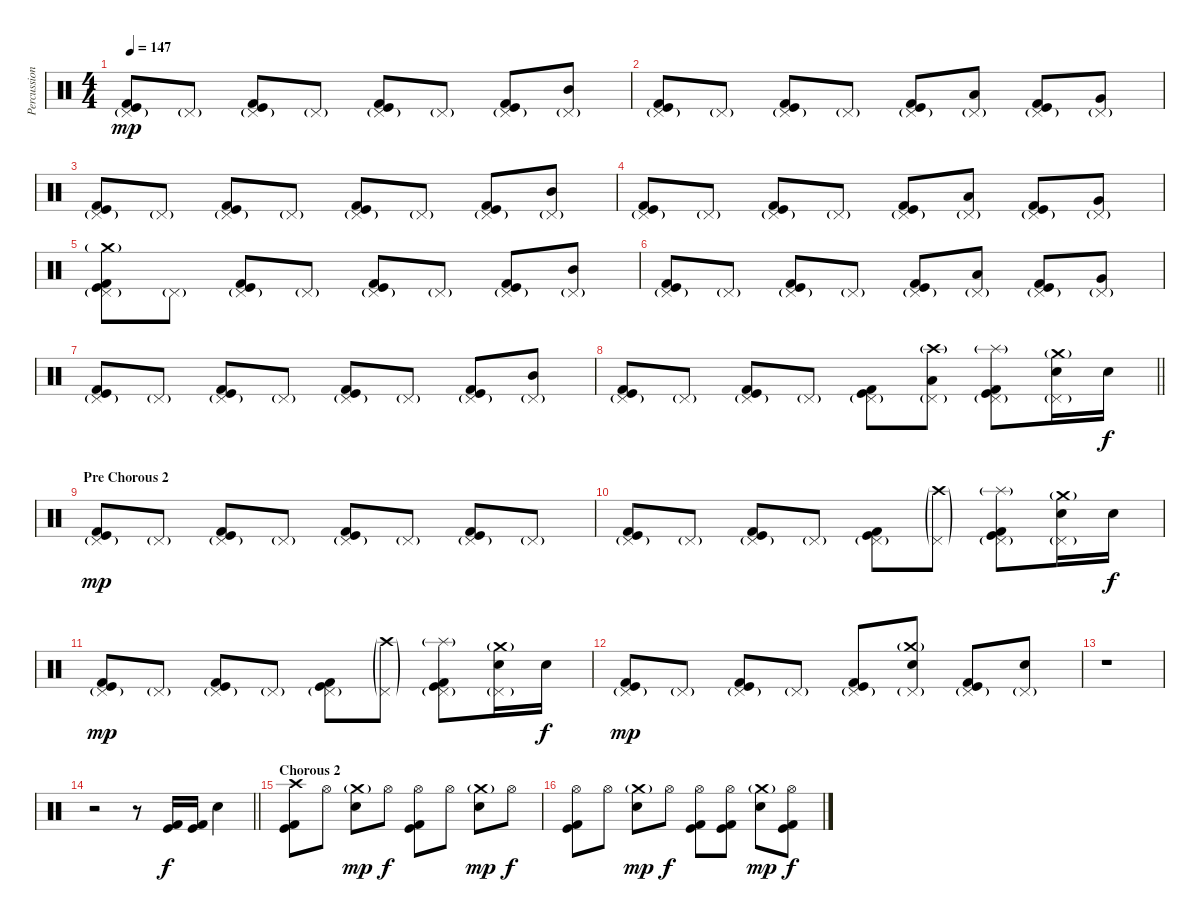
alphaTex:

\track ("Percussion" "Percussion") {instrument percussion}
\staff {score}
\articulation defaults
\ts (4 4)
\section ("" "")
\tempo 147
\clef neutral
\ks c
("Pedal Hi-Hat (hit)"{g} "Kick (hit)" "Kick (hit) 2").8{dy mp} "Pedal Hi-Hat (hit)"{g}.8 ("Pedal Hi-Hat (hit)"{g} "Kick (hit)" "Kick (hit) 2").8 "Pedal Hi-Hat (hit)"{g}.8 ("Pedal Hi-Hat (hit)"{g} "Kick (hit)" "Kick (hit) 2").8 "Pedal Hi-Hat (hit)"{g}.8 ("Pedal Hi-Hat (hit)"{g} "Kick (hit)" "Kick (hit) 2").8 ("Pedal Hi-Hat (hit)"{g} "Mid Tom (hit)").8 |
("Pedal Hi-Hat (hit)"{g} "Kick (hit)" "Kick (hit) 2").8 "Pedal Hi-Hat (hit)"{g}.8 ("Pedal Hi-Hat (hit)"{g} "Kick (hit)" "Kick (hit) 2").8 "Pedal Hi-Hat (hit)"{g}.8 ("Pedal Hi-Hat (hit)"{g} "Kick (hit)" "Kick (hit) 2").8 ("Pedal Hi-Hat (hit)"{g} "Low Tom (hit)").8 ("Pedal Hi-Hat (hit)"{g} "Kick (hit)" "Kick (hit) 2").8 ("Pedal Hi-Hat (hit)"{g} "Very Low Tom (hit)").8 |
("Pedal Hi-Hat (hit)"{g} "Kick (hit)" "Kick (hit) 2").8 "Pedal Hi-Hat (hit)"{g}.8 ("Pedal Hi-Hat (hit)"{g} "Kick (hit)" "Kick (hit) 2").8 "Pedal Hi-Hat (hit)"{g}.8 ("Pedal Hi-Hat (hit)"{g} "Kick (hit)" "Kick (hit) 2").8 "Pedal Hi-Hat (hit)"{g}.8 ("Pedal Hi-Hat (hit)"{g} "Kick (hit)" "Kick (hit) 2").8 ("Pedal Hi-Hat (hit)"{g} "Mid Tom (hit)").8 |
("Pedal Hi-Hat (hit)"{g} "Kick (hit)" "Kick (hit) 2").8 "Pedal Hi-Hat (hit)"{g}.8 ("Pedal Hi-Hat (hit)"{g} "Kick (hit)" "Kick (hit) 2").8 "Pedal Hi-Hat (hit)"{g}.8 ("Pedal Hi-Hat (hit)"{g} "Kick (hit)" "Kick (hit) 2").8 ("Pedal Hi-Hat (hit)"{g} "Low Tom (hit)").8 ("Pedal Hi-Hat (hit)"{g} "Kick (hit)" "Kick (hit) 2").8 ("Pedal Hi-Hat (hit)"{g} "Very Low Tom (hit)").8 |
("Pedal Hi-Hat (hit)"{g} "Crash medium (hit)"{g} "Kick (hit)" "Kick (hit) 2").8 "Pedal Hi-Hat (hit)"{g}.8 ("Pedal Hi-Hat (hit)"{g} "Kick (hit)" "Kick (hit) 2").8 "Pedal Hi-Hat (hit)"{g}.8 ("Pedal Hi-Hat (hit)"{g} "Kick (hit)" "Kick (hit) 2").8 "Pedal Hi-Hat (hit)"{g}.8 ("Pedal Hi-Hat (hit)"{g} "Kick (hit)" "Kick (hit) 2").8 ("Pedal Hi-Hat (hit)"{g} "Mid Tom (hit)").8 |
("Pedal Hi-Hat (hit)"{g} "Kick (hit)" "Kick (hit) 2").8 "Pedal Hi-Hat (hit)"{g}.8 ("Pedal Hi-Hat (hit)"{g} "Kick (hit)" "Kick (hit) 2").8 "Pedal Hi-Hat (hit)"{g}.8 ("Pedal Hi-Hat (hit)"{g} "Kick (hit)" "Kick (hit) 2").8 ("Pedal Hi-Hat (hit)"{g} "Low Tom (hit)").8 ("Pedal Hi-Hat (hit)"{g} "Kick (hit)" "Kick (hit) 2").8 ("Pedal Hi-Hat (hit)"{g} "Very Low Tom (hit)").8 |
("Pedal Hi-Hat (hit)"{g} "Kick (hit)" "Kick (hit) 2").8 "Pedal Hi-Hat (hit)"{g}.8 ("Pedal Hi-Hat (hit)"{g} "Kick (hit)" "Kick (hit) 2").8 "Pedal Hi-Hat (hit)"{g}.8 ("Pedal Hi-Hat (hit)"{g} "Kick (hit)" "Kick (hit) 2").8 "Pedal Hi-Hat (hit)"{g}.8 ("Pedal Hi-Hat (hit)"{g} "Kick (hit)" "Kick (hit) 2").8 ("Pedal Hi-Hat (hit)"{g} "Mid Tom (hit)").8 |
\barLineRight lightlight
("Pedal Hi-Hat (hit)"{g} "Kick (hit)" "Kick (hit) 2").8 "Pedal Hi-Hat (hit)"{g}.8 ("Pedal Hi-Hat (hit)"{g} "Kick (hit)" "Kick (hit) 2").8 "Pedal Hi-Hat (hit)"{g}.8 ("Pedal Hi-Hat (hit)"{g} "Kick (hit)" "Kick (hit) 2").8 ("Pedal Hi-Hat (hit)"{g} "Crash high (hit)"{g} "Low Tom (hit)").8 ("Pedal Hi-Hat (hit)"{g} "Splash (hit)"{g} "Kick (hit)" "Kick (hit) 2").8 ("Pedal Hi-Hat (hit)"{g} "Crash medium (hit)"{g} "Electric Snare (hit)").16 "Electric Snare (hit)".16{dy f} |
\section ("" "Pre Chorous 2")
("Pedal Hi-Hat (hit)"{g} "Kick (hit)" "Kick (hit) 2").8{dy mp} "Pedal Hi-Hat (hit)"{g}.8 ("Pedal Hi-Hat (hit)"{g} "Kick (hit)" "Kick (hit) 2").8 "Pedal Hi-Hat (hit)"{g}.8 ("Pedal Hi-Hat (hit)"{g} "Kick (hit)" "Kick (hit) 2").8 "Pedal Hi-Hat (hit)"{g}.8 ("Pedal Hi-Hat (hit)"{g} "Kick (hit)" "Kick (hit) 2").8 "Pedal Hi-Hat (hit)"{g}.8 |
("Pedal Hi-Hat (hit)"{g} "Kick (hit)" "Kick (hit) 2").8 "Pedal Hi-Hat (hit)"{g}.8 ("Pedal Hi-Hat (hit)"{g} "Kick (hit)" "Kick (hit) 2").8 "Pedal Hi-Hat (hit)"{g}.8 ("Pedal Hi-Hat (hit)"{g} "Kick (hit)" "Kick (hit) 2").8 ("Pedal Hi-Hat (hit)"{g} "Crash high (hit)"{g}).8 ("Pedal Hi-Hat (hit)"{g} "Splash (hit)"{g} "Kick (hit)" "Kick (hit) 2").8 ("Pedal Hi-Hat (hit)"{g} "Crash medium (hit)"{g} "Electric Snare (hit)").16 "Electric Snare (hit)".16{dy f} |
("Pedal Hi-Hat (hit)"{g} "Kick (hit)" "Kick (hit) 2").8{dy mp} "Pedal Hi-Hat (hit)"{g}.8 ("Pedal Hi-Hat (hit)"{g} "Kick (hit)" "Kick (hit) 2").8 "Pedal Hi-Hat (hit)"{g}.8 ("Pedal Hi-Hat (hit)"{g} "Kick (hit)" "Kick (hit) 2").8 ("Pedal Hi-Hat (hit)"{g} "Crash high (hit)"{g}).8 ("Pedal Hi-Hat (hit)"{g} "Splash (hit)"{g} "Kick (hit)" "Kick (hit) 2").8 ("Pedal Hi-Hat (hit)"{g} "Crash medium (hit)"{g} "Electric Snare (hit)").16 "Electric Snare (hit)".16{dy f} |
("Pedal Hi-Hat (hit)"{g} "Kick (hit)" "Kick (hit) 2").8{dy mp} "Pedal Hi-Hat (hit)"{g}.8 ("Pedal Hi-Hat (hit)"{g} "Kick (hit)" "Kick (hit) 2").8 "Pedal Hi-Hat (hit)"{g}.8 ("Pedal Hi-Hat (hit)"{g} "Kick (hit)" "Kick (hit) 2").8 ("Pedal Hi-Hat (hit)"{g} "Crash medium (hit)"{g} "Electric Snare (hit)").8 ("Pedal Hi-Hat (hit)"{g} "Kick (hit)" "Kick (hit) 2").8 ("Pedal Hi-Hat (hit)"{g} "Electric Snare (hit)").8 |
r.1 |
\barLineRight lightlight
r.2 r.8 ("Kick (hit)" "Kick (hit) 2").16{dy f} ("Kick (hit)" "Kick (hit) 2").16 "Electric Snare (hit)".4 |
\section ("" "Chorous 2")
("Crash high (hit)" "Kick (hit)" "Kick (hit) 2").8 "Hi-Hat (open)".8 ("Crash medium (hit)"{g} "Electric Snare (hit)").8{dy mp} "Hi-Hat (open)".8{dy f} ("Hi-Hat (open)" "Kick (hit)" "Kick (hit) 2").8 "Hi-Hat (open)".8 ("Crash medium (hit)"{g} "Electric Snare (hit)").8{dy mp} "Hi-Hat (open)".8{dy f} |
("Hi-Hat (open)" "Kick (hit)" "Kick (hit) 2").8 "Hi-Hat (open)".8 ("Crash medium (hit)"{g} "Electric Snare (hit)").8{dy mp} "Hi-Hat (open)".8{dy f} ("Hi-Hat (open)" "Kick (hit)" "Kick (hit) 2").8 ("Hi-Hat (open)" "Kick (hit)" "Kick (hit) 2").8 ("Crash medium (hit)"{g} "Electric Snare (hit)").8{dy mp} ("Hi-Hat (open)" "Kick (hit)" "Kick (hit) 2").8{dy f}
